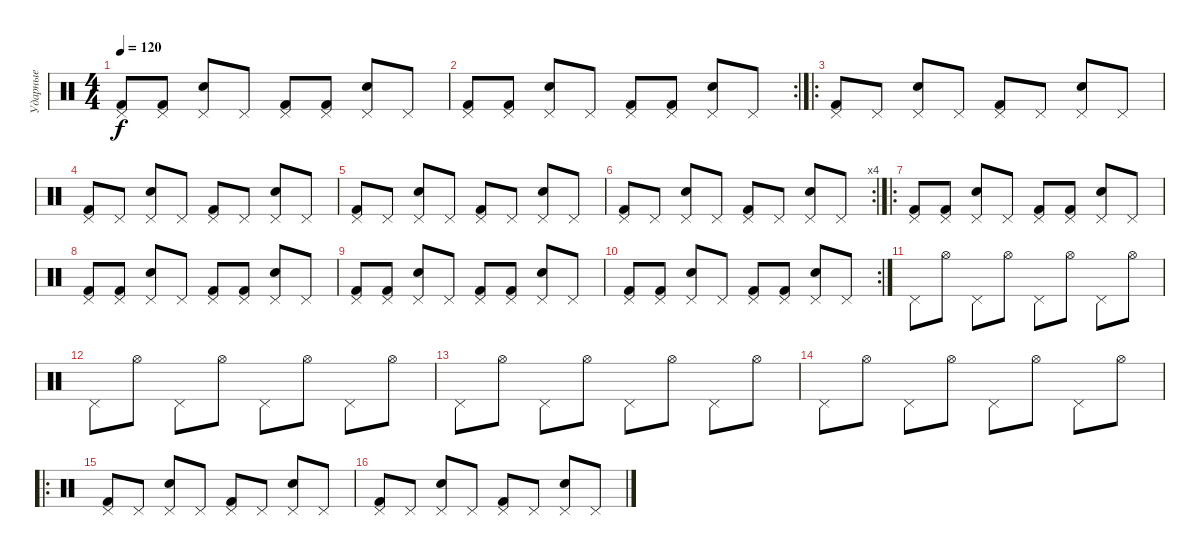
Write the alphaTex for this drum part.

\track ("Ударные" "Ударные") {instrument percussion}
\staff {score}
\articulation defaults
\ts (4 4)
\tempo 120
\clef neutral
\ks c
("Kick (hit) 2" "Pedal Hi-Hat (hit)").8{dy f} ("Pedal Hi-Hat (hit)" "Kick (hit) 2").8 ("Pedal Hi-Hat (hit)" "Electric Snare (hit)").8 "Pedal Hi-Hat (hit)".8 ("Kick (hit) 2" "Pedal Hi-Hat (hit)").8 ("Pedal Hi-Hat (hit)" "Kick (hit) 2").8 ("Electric Snare (hit)" "Pedal Hi-Hat (hit)").8 "Pedal Hi-Hat (hit)".8 |
\rc 2
("Pedal Hi-Hat (hit)" "Kick (hit) 2").8 ("Kick (hit) 2" "Pedal Hi-Hat (hit)").8 ("Pedal Hi-Hat (hit)" "Electric Snare (hit)").8 "Pedal Hi-Hat (hit)".8 ("Kick (hit) 2" "Pedal Hi-Hat (hit)").8 ("Pedal Hi-Hat (hit)" "Kick (hit) 2").8 ("Pedal Hi-Hat (hit)" "Electric Snare (hit)").8 "Pedal Hi-Hat (hit)".8 |
\ro
("Pedal Hi-Hat (hit)" "Kick (hit) 2").8 "Pedal Hi-Hat (hit)".8 ("Snare (hit) 2" "Pedal Hi-Hat (hit)").8 "Pedal Hi-Hat (hit)".8 ("Pedal Hi-Hat (hit)" "Kick (hit) 2").8 "Pedal Hi-Hat (hit)".8 ("Pedal Hi-Hat (hit)" "Snare (hit) 2").8 "Pedal Hi-Hat (hit)".8 |
("Kick (hit) 2" "Pedal Hi-Hat (hit)").8 "Pedal Hi-Hat (hit)".8 ("Pedal Hi-Hat (hit)" "Snare (hit) 2").8 "Pedal Hi-Hat (hit)".8 ("Kick (hit) 2" "Pedal Hi-Hat (hit)").8 "Pedal Hi-Hat (hit)".8 ("Snare (hit) 2" "Pedal Hi-Hat (hit)").8 "Pedal Hi-Hat (hit)".8 |
("Pedal Hi-Hat (hit)" "Kick (hit) 2").8 "Pedal Hi-Hat (hit)".8 ("Pedal Hi-Hat (hit)" "Snare (hit) 2").8 "Pedal Hi-Hat (hit)".8 ("Pedal Hi-Hat (hit)" "Kick (hit) 2").8 "Pedal Hi-Hat (hit)".8 ("Pedal Hi-Hat (hit)" "Snare (hit) 2").8 "Pedal Hi-Hat (hit)".8 |
\rc 4
("Kick (hit) 2" "Pedal Hi-Hat (hit)").8 "Pedal Hi-Hat (hit)".8 ("Snare (hit) 2" "Pedal Hi-Hat (hit)").8 "Pedal Hi-Hat (hit)".8 ("Kick (hit) 2" "Pedal Hi-Hat (hit)").8 "Pedal Hi-Hat (hit)".8 ("Snare (hit) 2" "Pedal Hi-Hat (hit)").8 "Pedal Hi-Hat (hit)".8 |
\ro
("Pedal Hi-Hat (hit)" "Kick (hit) 2").8 ("Pedal Hi-Hat (hit)" "Kick (hit) 2").8 ("Pedal Hi-Hat (hit)" "Electric Snare (hit)").8 "Pedal Hi-Hat (hit)".8 ("Pedal Hi-Hat (hit)" "Kick (hit) 2").8 ("Pedal Hi-Hat (hit)" "Kick (hit) 2").8 ("Pedal Hi-Hat (hit)" "Electric Snare (hit)").8 "Pedal Hi-Hat (hit)".8 |
("Pedal Hi-Hat (hit)" "Kick (hit) 2").8 ("Pedal Hi-Hat (hit)" "Kick (hit) 2").8 ("Pedal Hi-Hat (hit)" "Electric Snare (hit)").8 "Pedal Hi-Hat (hit)".8 ("Pedal Hi-Hat (hit)" "Kick (hit) 2").8 ("Pedal Hi-Hat (hit)" "Kick (hit) 2").8 ("Pedal Hi-Hat (hit)" "Electric Snare (hit)").8 "Pedal Hi-Hat (hit)".8 |
("Kick (hit) 2" "Pedal Hi-Hat (hit)").8 ("Pedal Hi-Hat (hit)" "Kick (hit) 2").8 ("Pedal Hi-Hat (hit)" "Electric Snare (hit)").8 "Pedal Hi-Hat (hit)".8 ("Kick (hit) 2" "Pedal Hi-Hat (hit)").8 ("Pedal Hi-Hat (hit)" "Kick (hit) 2").8 ("Electric Snare (hit)" "Pedal Hi-Hat (hit)").8 "Pedal Hi-Hat (hit)".8 |
\rc 2
("Pedal Hi-Hat (hit)" "Kick (hit) 2").8 ("Kick (hit) 2" "Pedal Hi-Hat (hit)").8 ("Pedal Hi-Hat (hit)" "Electric Snare (hit)").8 "Pedal Hi-Hat (hit)".8 ("Kick (hit) 2" "Pedal Hi-Hat (hit)").8 ("Pedal Hi-Hat (hit)" "Kick (hit) 2").8 ("Pedal Hi-Hat (hit)" "Electric Snare (hit)").8 "Pedal Hi-Hat (hit)".8 |
"Pedal Hi-Hat (hit)".8 "Hi-Hat (open)".8 "Pedal Hi-Hat (hit)".8 "Hi-Hat (open)".8 "Pedal Hi-Hat (hit)".8 "Hi-Hat (open)".8 "Pedal Hi-Hat (hit)".8 "Hi-Hat (open)".8 |
"Pedal Hi-Hat (hit)".8 "Hi-Hat (open)".8 "Pedal Hi-Hat (hit)".8 "Hi-Hat (open)".8 "Pedal Hi-Hat (hit)".8 "Hi-Hat (open)".8 "Pedal Hi-Hat (hit)".8 "Hi-Hat (open)".8 |
"Pedal Hi-Hat (hit)".8 "Hi-Hat (open)".8 "Pedal Hi-Hat (hit)".8 "Hi-Hat (open)".8 "Pedal Hi-Hat (hit)".8 "Hi-Hat (open)".8 "Pedal Hi-Hat (hit)".8 "Hi-Hat (open)".8 |
"Pedal Hi-Hat (hit)".8 "Hi-Hat (open)".8 "Pedal Hi-Hat (hit)".8 "Hi-Hat (open)".8 "Pedal Hi-Hat (hit)".8 "Hi-Hat (open)".8 "Pedal Hi-Hat (hit)".8 "Hi-Hat (open)".8 |
\ro
("Pedal Hi-Hat (hit)" "Kick (hit) 2").8 "Pedal Hi-Hat (hit)".8 ("Snare (hit) 2" "Pedal Hi-Hat (hit)").8 "Pedal Hi-Hat (hit)".8 ("Pedal Hi-Hat (hit)" "Kick (hit) 2").8 "Pedal Hi-Hat (hit)".8 ("Pedal Hi-Hat (hit)" "Snare (hit) 2").8 "Pedal Hi-Hat (hit)".8 |
("Kick (hit) 2" "Pedal Hi-Hat (hit)").8 "Pedal Hi-Hat (hit)".8 ("Pedal Hi-Hat (hit)" "Snare (hit) 2").8 "Pedal Hi-Hat (hit)".8 ("Kick (hit) 2" "Pedal Hi-Hat (hit)").8 "Pedal Hi-Hat (hit)".8 ("Snare (hit) 2" "Pedal Hi-Hat (hit)").8 "Pedal Hi-Hat (hit)".8
